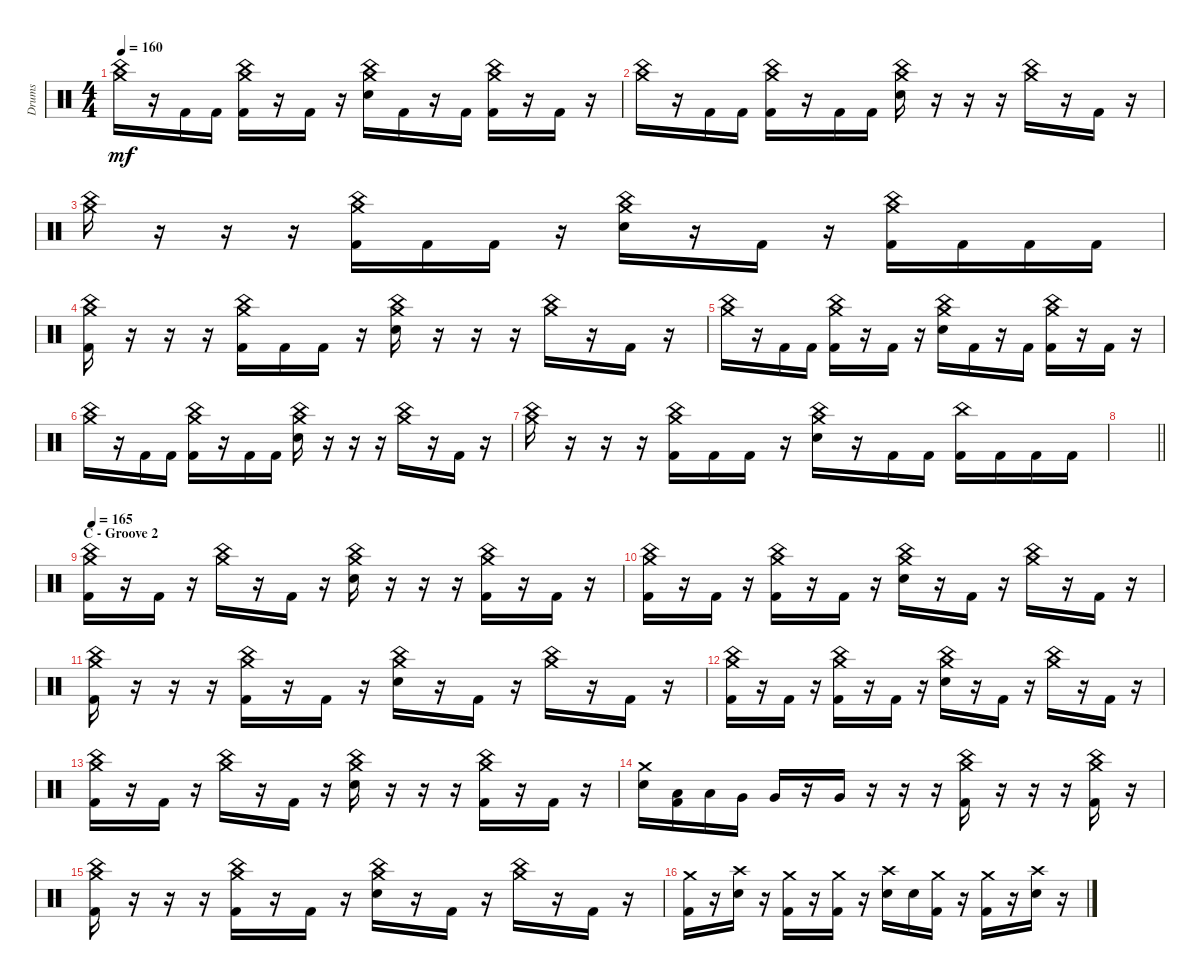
\track ("Drums" "Drums") {instrument percussion}
\staff {score}
\articulation defaults
\ts (4 4)
\tempo 160
\clef neutral
\ks c
("Crash medium (hit)" "China (hit)").16{dy mf} r.16 "Kick (hit) 2".16 "Kick (hit) 2".16 ("Crash medium (hit)" "China (hit)" "Kick (hit) 2").16 r.16 "Kick (hit) 2".16 r.16 ("Crash medium (hit)" "China (hit)" "Electric Snare (hit)").16 "Kick (hit) 2".16 r.16 "Kick (hit) 2".16 ("Crash medium (hit)" "China (hit)" "Kick (hit) 2").16 r.16 "Kick (hit) 2".16 r.16 |
("Crash medium (hit)" "China (hit)").16 r.16 "Kick (hit) 2".16 "Kick (hit) 2".16 ("Crash medium (hit)" "China (hit)" "Kick (hit) 2").16 r.16 "Kick (hit) 2".16 "Kick (hit) 2".16 ("Crash medium (hit)" "China (hit)" "Electric Snare (hit)").16 r.16 r.16 r.16 ("Crash medium (hit)" "China (hit)").16 r.16 "Kick (hit) 2".16 r.16 |
("Crash medium (hit)" "China (hit)").16 r.16 r.16 r.16 ("Crash medium (hit)" "China (hit)" "Kick (hit) 2").16 "Kick (hit) 2".16 "Kick (hit) 2".16 r.16 ("Crash medium (hit)" "China (hit)" "Electric Snare (hit)").16 r.16 "Kick (hit) 2".16 r.16 ("Crash medium (hit)" "China (hit)" "Kick (hit) 2").16 "Kick (hit) 2".16 "Kick (hit) 2".16 "Kick (hit) 2".16 |
("Crash medium (hit)" "China (hit)" "Kick (hit) 2").16 r.16 r.16 r.16 ("Crash medium (hit)" "China (hit)" "Kick (hit) 2").16 "Kick (hit) 2".16 "Kick (hit) 2".16 r.16 ("Crash medium (hit)" "China (hit)" "Electric Snare (hit)").16 r.16 r.16 r.16 ("Crash medium (hit)" "China (hit)").16 r.16 "Kick (hit) 2".16 r.16 |
("Crash medium (hit)" "China (hit)").16 r.16 "Kick (hit) 2".16 "Kick (hit) 2".16 ("Crash medium (hit)" "China (hit)" "Kick (hit) 2").16 r.16 "Kick (hit) 2".16 r.16 ("Crash medium (hit)" "China (hit)" "Electric Snare (hit)").16 "Kick (hit) 2".16 r.16 "Kick (hit) 2".16 ("Crash medium (hit)" "China (hit)" "Kick (hit) 2").16 r.16 "Kick (hit) 2".16 r.16 |
("Crash medium (hit)" "China (hit)").16 r.16 "Kick (hit) 2".16 "Kick (hit) 2".16 ("Crash medium (hit)" "China (hit)" "Kick (hit) 2").16 r.16 "Kick (hit) 2".16 "Kick (hit) 2".16 ("Crash medium (hit)" "China (hit)" "Electric Snare (hit)").16 r.16 r.16 r.16 ("Crash medium (hit)" "China (hit)").16 r.16 "Kick (hit) 2".16 r.16 |
("Crash medium (hit)" "China (hit)").16 r.16 r.16 r.16 ("Crash medium (hit)" "China (hit)" "Kick (hit) 2").16 "Kick (hit) 2".16 "Kick (hit) 2".16 r.16 ("Crash medium (hit)" "China (hit)" "Electric Snare (hit)").16 r.16 "Kick (hit) 2".16 "Kick (hit) 2".16 ("China (hit)" "Kick (hit) 2").16 "Kick (hit) 2".16 "Kick (hit) 2".16 "Kick (hit) 2".16 |
\barLineRight lightlight
|
\section ("" "C - Groove 2")
\tempo 165
("Crash medium (hit)" "China (hit)" "Kick (hit) 2").16 r.16 "Kick (hit) 2".16 r.16 ("Crash medium (hit)" "China (hit)").16 r.16 "Kick (hit) 2".16 r.16 ("Crash medium (hit)" "China (hit)" "Electric Snare (hit)").16 r.16 r.16 r.16 ("Crash medium (hit)" "China (hit)" "Kick (hit) 2").16 r.16 "Kick (hit) 2".16 r.16 |
("Crash medium (hit)" "China (hit)" "Kick (hit) 2").16 r.16 "Kick (hit) 2".16 r.16 ("Crash medium (hit)" "China (hit)" "Kick (hit) 2").16 r.16 "Kick (hit) 2".16 r.16 ("Crash medium (hit)" "China (hit)" "Electric Snare (hit)").16 r.16 "Kick (hit) 2".16 r.16 ("Crash medium (hit)" "China (hit)").16 r.16 "Kick (hit) 2".16 r.16 |
("Crash medium (hit)" "China (hit)" "Kick (hit) 2").16 r.16 r.16 r.16 ("Crash medium (hit)" "China (hit)" "Kick (hit) 2").16 r.16 "Kick (hit) 2".16 r.16 ("Crash medium (hit)" "China (hit)" "Electric Snare (hit)").16 r.16 "Kick (hit) 2".16 r.16 ("Crash medium (hit)" "China (hit)").16 r.16 "Kick (hit) 2".16 r.16 |
("Crash medium (hit)" "China (hit)" "Kick (hit) 2").16 r.16 "Kick (hit) 2".16 r.16 ("Crash medium (hit)" "China (hit)" "Kick (hit) 2").16 r.16 "Kick (hit) 2".16 r.16 ("Crash medium (hit)" "China (hit)" "Electric Snare (hit)").16 r.16 "Kick (hit) 2".16 r.16 ("Crash medium (hit)" "China (hit)").16 r.16 "Kick (hit) 2".16 r.16 |
("Crash medium (hit)" "China (hit)" "Kick (hit) 2").16 r.16 "Kick (hit) 2".16 r.16 ("Crash medium (hit)" "China (hit)").16 r.16 "Kick (hit) 2".16 r.16 ("Crash medium (hit)" "China (hit)" "Electric Snare (hit)").16 r.16 r.16 r.16 ("Crash medium (hit)" "China (hit)" "Kick (hit) 2").16 r.16 "Kick (hit) 2".16 r.16 |
("Crash medium (hit)" "Electric Snare (hit)").16 ("Low Tom (hit)" "Kick (hit) 2").16 "Low Tom (hit)".16 "Very Low Tom (hit)".16 "Very Low Tom (hit)".16 r.16 "Very Low Tom (hit)".16 r.16 r.16 r.16 ("Crash medium (hit)" "China (hit)" "Kick (hit) 2").16 r.16 r.16 r.16 ("Crash medium (hit)" "China (hit)" "Kick (hit) 2").16 r.16 |
("Crash medium (hit)" "China (hit)" "Kick (hit) 2").16 r.16 r.16 r.16 ("Crash medium (hit)" "China (hit)" "Kick (hit) 2").16 r.16 "Kick (hit) 2".16 r.16 ("Crash medium (hit)" "China (hit)" "Electric Snare (hit)").16 r.16 "Kick (hit) 2".16 r.16 ("Crash medium (hit)" "China (hit)").16 r.16 "Kick (hit) 2".16 r.16 |
("Crash medium (hit)" "Kick (hit) 2").16 r.16 ("Crash high (hit)" "Electric Snare (hit)").16 r.16 ("Crash medium (hit)" "Kick (hit) 2").16 r.16 ("Crash medium (hit)" "Kick (hit) 2").16 r.16 ("Crash high (hit)" "Electric Snare (hit)").16 "Electric Snare (hit)".16 ("Crash medium (hit)" "Kick (hit) 2").16 r.16 ("Crash medium (hit)" "Kick (hit) 2").16 r.16 ("Crash high (hit)" "Electric Snare (hit)").16 r.16
